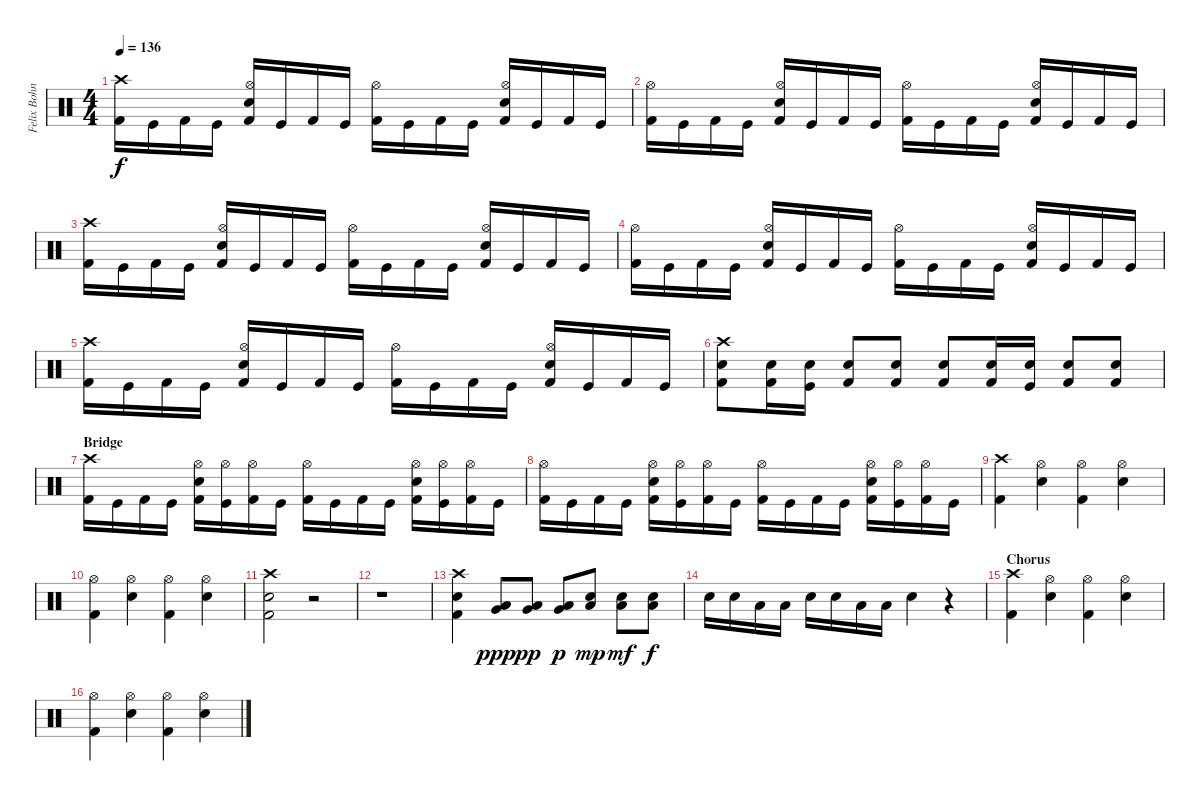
\track ("Felix Bohnke" "Felix Bohn") {instrument percussion}
\staff {score}
\articulation defaults
\ts (4 4)
\tempo 136
\clef neutral
\ks c
("Crash high (hit)" "Kick (hit) 2").16{dy f} "Kick (hit)".16 "Kick (hit) 2".16 "Kick (hit)".16 ("Hi-Hat (open)" "Snare (hit) 2" "Kick (hit) 2").16 "Kick (hit)".16 "Kick (hit) 2".16 "Kick (hit)".16 ("Hi-Hat (open)" "Kick (hit) 2").16 "Kick (hit)".16 "Kick (hit) 2".16 "Kick (hit)".16 ("Hi-Hat (open)" "Snare (hit) 2" "Kick (hit) 2").16 "Kick (hit)".16 "Kick (hit) 2".16 "Kick (hit)".16 |
("Hi-Hat (open)" "Kick (hit) 2").16 "Kick (hit)".16 "Kick (hit) 2".16 "Kick (hit)".16 ("Hi-Hat (open)" "Snare (hit) 2" "Kick (hit) 2").16 "Kick (hit)".16 "Kick (hit) 2".16 "Kick (hit)".16 ("Hi-Hat (open)" "Kick (hit) 2").16 "Kick (hit)".16 "Kick (hit) 2".16 "Kick (hit)".16 ("Hi-Hat (open)" "Snare (hit) 2" "Kick (hit) 2").16 "Kick (hit)".16 "Kick (hit) 2".16 "Kick (hit)".16 |
("Crash high (hit)" "Kick (hit) 2").16 "Kick (hit)".16 "Kick (hit) 2".16 "Kick (hit)".16 ("Hi-Hat (open)" "Snare (hit) 2" "Kick (hit) 2").16 "Kick (hit)".16 "Kick (hit) 2".16 "Kick (hit)".16 ("Hi-Hat (open)" "Kick (hit) 2").16 "Kick (hit)".16 "Kick (hit) 2".16 "Kick (hit)".16 ("Hi-Hat (open)" "Snare (hit) 2" "Kick (hit) 2").16 "Kick (hit)".16 "Kick (hit) 2".16 "Kick (hit)".16 |
("Hi-Hat (open)" "Kick (hit) 2").16 "Kick (hit)".16 "Kick (hit) 2".16 "Kick (hit)".16 ("Hi-Hat (open)" "Snare (hit) 2" "Kick (hit) 2").16 "Kick (hit)".16 "Kick (hit) 2".16 "Kick (hit)".16 ("Hi-Hat (open)" "Kick (hit) 2").16 "Kick (hit)".16 "Kick (hit) 2".16 "Kick (hit)".16 ("Hi-Hat (open)" "Snare (hit) 2" "Kick (hit) 2").16 "Kick (hit)".16 "Kick (hit) 2".16 "Kick (hit)".16 |
("Crash high (hit)" "Kick (hit) 2").16 "Kick (hit)".16 "Kick (hit) 2".16 "Kick (hit)".16 ("Hi-Hat (open)" "Snare (hit) 2" "Kick (hit) 2").16 "Kick (hit)".16 "Kick (hit) 2".16 "Kick (hit)".16 ("Hi-Hat (open)" "Kick (hit) 2").16 "Kick (hit)".16 "Kick (hit) 2".16 "Kick (hit)".16 ("Hi-Hat (open)" "Snare (hit) 2" "Kick (hit) 2").16 "Kick (hit)".16 "Kick (hit) 2".16 "Kick (hit)".16 |
("Crash high (hit)" "Snare (hit) 2" "Kick (hit) 2").8 ("Snare (hit) 2" "Kick (hit) 2").16 ("Snare (hit) 2" "Kick (hit)").16 ("Snare (hit) 2" "Kick (hit) 2").8 ("Snare (hit) 2" "Kick (hit) 2").8 ("Snare (hit) 2" "Kick (hit) 2").8 ("Snare (hit) 2" "Kick (hit) 2").16 ("Snare (hit) 2" "Kick (hit)").16 ("Snare (hit) 2" "Kick (hit) 2").8 ("Snare (hit) 2" "Kick (hit) 2").8 |
\section ("" "Bridge")
("Crash high (hit)" "Kick (hit) 2").16 "Kick (hit)".16 "Kick (hit) 2".16 "Kick (hit)".16 ("Hi-Hat (open)" "Snare (hit) 2" "Kick (hit) 2").16 ("Hi-Hat (open)" "Kick (hit)").16 ("Hi-Hat (open)" "Kick (hit) 2").16 "Kick (hit)".16 ("Hi-Hat (open)" "Kick (hit) 2").16 "Kick (hit)".16 "Kick (hit) 2".16 "Kick (hit)".16 ("Hi-Hat (open)" "Snare (hit) 2" "Kick (hit) 2").16 ("Hi-Hat (open)" "Kick (hit)").16 ("Hi-Hat (open)" "Kick (hit) 2").16 "Kick (hit)".16 |
("Hi-Hat (open)" "Kick (hit) 2").16 "Kick (hit)".16 "Kick (hit) 2".16 "Kick (hit)".16 ("Hi-Hat (open)" "Snare (hit) 2" "Kick (hit) 2").16 ("Hi-Hat (open)" "Kick (hit)").16 ("Hi-Hat (open)" "Kick (hit) 2").16 "Kick (hit)".16 ("Hi-Hat (open)" "Kick (hit) 2").16 "Kick (hit)".16 "Kick (hit) 2".16 "Kick (hit)".16 ("Hi-Hat (open)" "Snare (hit) 2" "Kick (hit) 2").16 ("Hi-Hat (open)" "Kick (hit)").16 ("Hi-Hat (open)" "Kick (hit) 2").16 "Kick (hit)".16 |
("Crash high (hit)" "Kick (hit) 2").4 ("Hi-Hat (open)" "Snare (hit) 2").4 ("Hi-Hat (open)" "Kick (hit) 2").4 ("Hi-Hat (open)" "Snare (hit) 2").4 |
("Hi-Hat (open)" "Kick (hit) 2").4 ("Hi-Hat (open)" "Snare (hit) 2").4 ("Hi-Hat (open)" "Kick (hit) 2").4 ("Hi-Hat (open)" "Snare (hit) 2").4 |
("Crash high (hit)" "Snare (hit) 2" "Kick (hit) 2").2 r.2 |
r.1 |
("Crash high (hit)" "Snare (hit) 2" "Kick (hit) 2").4 ("Very Low Tom (hit)" "Low Tom (hit)").8{dy ppp} ("Very Low Tom (hit)" "Low Tom (hit)").8{dy pp} ("Very Low Tom (hit)" "Low Tom (hit)").8{dy p} ("Snare (hit) 2" "Low Tom (hit)").8{dy mp} ("Snare (hit) 2" "Low Tom (hit)").8{dy mf} ("Snare (hit) 2" "Low Tom (hit)").8{dy f} |
"Snare (hit) 2".16 "Snare (hit) 2".16 "Low Tom (hit)".16 "Low Tom (hit)".16 "Snare (hit) 2".16 "Snare (hit) 2".16 "Low Tom (hit)".16 "Low Tom (hit)".16 "Snare (hit) 2".4 r.4 |
\section ("" "Chorus")
("Crash high (hit)" "Kick (hit) 2").4 ("Hi-Hat (open)" "Snare (hit) 2").4 ("Hi-Hat (open)" "Kick (hit) 2").4 ("Hi-Hat (open)" "Snare (hit) 2").4 |
("Hi-Hat (open)" "Kick (hit) 2").4 ("Hi-Hat (open)" "Snare (hit) 2").4 ("Hi-Hat (open)" "Kick (hit) 2").4 ("Hi-Hat (open)" "Snare (hit) 2").4
